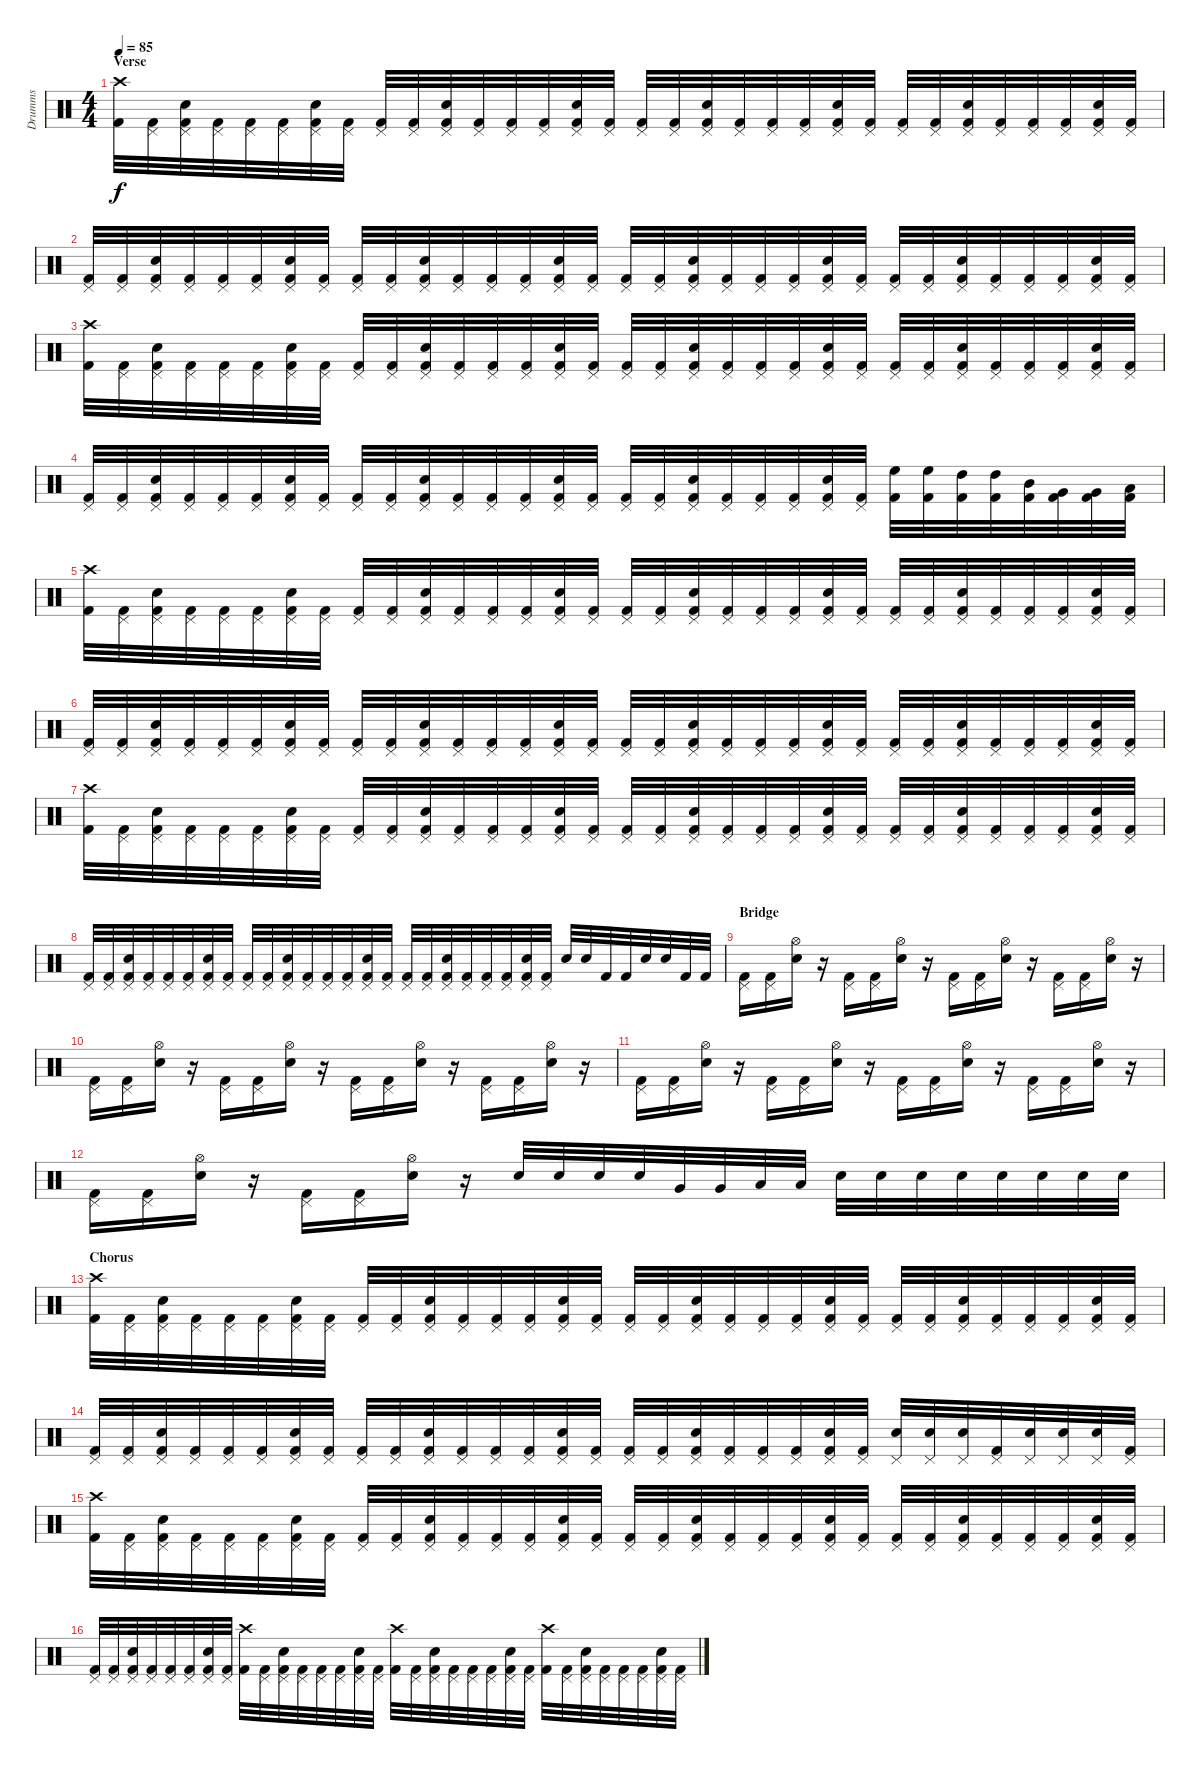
\track ("Drumms" "Drumms") {instrument percussion}
\staff {score}
\articulation defaults
\ts (4 4)
\section ("" "Verse")
\tempo 85
\clef neutral
\ks c
("Crash high (hit)" "Kick (hit) 2").32{dy f} ("Pedal Hi-Hat (hit)" "Kick (hit) 2").32 ("Pedal Hi-Hat (hit)" "Snare (hit) 2" "Kick (hit) 2").32 ("Pedal Hi-Hat (hit)" "Kick (hit) 2").32 ("Pedal Hi-Hat (hit)" "Kick (hit) 2").32 ("Pedal Hi-Hat (hit)" "Kick (hit) 2").32 ("Pedal Hi-Hat (hit)" "Snare (hit) 2" "Kick (hit) 2").32 ("Pedal Hi-Hat (hit)" "Kick (hit) 2").32 ("Pedal Hi-Hat (hit)" "Kick (hit) 2").32 ("Pedal Hi-Hat (hit)" "Kick (hit) 2").32 ("Pedal Hi-Hat (hit)" "Snare (hit) 2" "Kick (hit) 2").32 ("Pedal Hi-Hat (hit)" "Kick (hit) 2").32 ("Pedal Hi-Hat (hit)" "Kick (hit) 2").32 ("Pedal Hi-Hat (hit)" "Kick (hit) 2").32 ("Pedal Hi-Hat (hit)" "Snare (hit) 2" "Kick (hit) 2").32 ("Pedal Hi-Hat (hit)" "Kick (hit) 2").32 ("Pedal Hi-Hat (hit)" "Kick (hit) 2").32 ("Pedal Hi-Hat (hit)" "Kick (hit) 2").32 ("Pedal Hi-Hat (hit)" "Snare (hit) 2" "Kick (hit) 2").32 ("Pedal Hi-Hat (hit)" "Kick (hit) 2").32 ("Pedal Hi-Hat (hit)" "Kick (hit) 2").32 ("Pedal Hi-Hat (hit)" "Kick (hit) 2").32 ("Pedal Hi-Hat (hit)" "Snare (hit) 2" "Kick (hit) 2").32 ("Pedal Hi-Hat (hit)" "Kick (hit) 2").32 ("Pedal Hi-Hat (hit)" "Kick (hit) 2").32 ("Pedal Hi-Hat (hit)" "Kick (hit) 2").32 ("Pedal Hi-Hat (hit)" "Snare (hit) 2" "Kick (hit) 2").32 ("Pedal Hi-Hat (hit)" "Kick (hit) 2").32 ("Pedal Hi-Hat (hit)" "Kick (hit) 2").32 ("Pedal Hi-Hat (hit)" "Kick (hit) 2").32 ("Pedal Hi-Hat (hit)" "Snare (hit) 2" "Kick (hit) 2").32 ("Pedal Hi-Hat (hit)" "Kick (hit) 2").32 |
("Pedal Hi-Hat (hit)" "Kick (hit) 2").32 ("Pedal Hi-Hat (hit)" "Kick (hit) 2").32 ("Pedal Hi-Hat (hit)" "Snare (hit) 2" "Kick (hit) 2").32 ("Pedal Hi-Hat (hit)" "Kick (hit) 2").32 ("Pedal Hi-Hat (hit)" "Kick (hit) 2").32 ("Pedal Hi-Hat (hit)" "Kick (hit) 2").32 ("Pedal Hi-Hat (hit)" "Snare (hit) 2" "Kick (hit) 2").32 ("Pedal Hi-Hat (hit)" "Kick (hit) 2").32 ("Pedal Hi-Hat (hit)" "Kick (hit) 2").32 ("Pedal Hi-Hat (hit)" "Kick (hit) 2").32 ("Pedal Hi-Hat (hit)" "Snare (hit) 2" "Kick (hit) 2").32 ("Pedal Hi-Hat (hit)" "Kick (hit) 2").32 ("Pedal Hi-Hat (hit)" "Kick (hit) 2").32 ("Pedal Hi-Hat (hit)" "Kick (hit) 2").32 ("Pedal Hi-Hat (hit)" "Snare (hit) 2" "Kick (hit) 2").32 ("Pedal Hi-Hat (hit)" "Kick (hit) 2").32 ("Pedal Hi-Hat (hit)" "Kick (hit) 2").32 ("Pedal Hi-Hat (hit)" "Kick (hit) 2").32 ("Pedal Hi-Hat (hit)" "Snare (hit) 2" "Kick (hit) 2").32 ("Pedal Hi-Hat (hit)" "Kick (hit) 2").32 ("Pedal Hi-Hat (hit)" "Kick (hit) 2").32 ("Pedal Hi-Hat (hit)" "Kick (hit) 2").32 ("Pedal Hi-Hat (hit)" "Snare (hit) 2" "Kick (hit) 2").32 ("Pedal Hi-Hat (hit)" "Kick (hit) 2").32 ("Pedal Hi-Hat (hit)" "Kick (hit) 2").32 ("Pedal Hi-Hat (hit)" "Kick (hit) 2").32 ("Pedal Hi-Hat (hit)" "Snare (hit) 2" "Kick (hit) 2").32 ("Pedal Hi-Hat (hit)" "Kick (hit) 2").32 ("Pedal Hi-Hat (hit)" "Kick (hit) 2").32 ("Pedal Hi-Hat (hit)" "Kick (hit) 2").32 ("Pedal Hi-Hat (hit)" "Snare (hit) 2" "Kick (hit) 2").32 ("Pedal Hi-Hat (hit)" "Kick (hit) 2").32 |
("Crash high (hit)" "Kick (hit) 2").32 ("Pedal Hi-Hat (hit)" "Kick (hit) 2").32 ("Pedal Hi-Hat (hit)" "Snare (hit) 2" "Kick (hit) 2").32 ("Pedal Hi-Hat (hit)" "Kick (hit) 2").32 ("Pedal Hi-Hat (hit)" "Kick (hit) 2").32 ("Pedal Hi-Hat (hit)" "Kick (hit) 2").32 ("Pedal Hi-Hat (hit)" "Snare (hit) 2" "Kick (hit) 2").32 ("Pedal Hi-Hat (hit)" "Kick (hit) 2").32 ("Pedal Hi-Hat (hit)" "Kick (hit) 2").32 ("Pedal Hi-Hat (hit)" "Kick (hit) 2").32 ("Pedal Hi-Hat (hit)" "Snare (hit) 2" "Kick (hit) 2").32 ("Pedal Hi-Hat (hit)" "Kick (hit) 2").32 ("Pedal Hi-Hat (hit)" "Kick (hit) 2").32 ("Pedal Hi-Hat (hit)" "Kick (hit) 2").32 ("Pedal Hi-Hat (hit)" "Snare (hit) 2" "Kick (hit) 2").32 ("Pedal Hi-Hat (hit)" "Kick (hit) 2").32 ("Pedal Hi-Hat (hit)" "Kick (hit) 2").32 ("Pedal Hi-Hat (hit)" "Kick (hit) 2").32 ("Pedal Hi-Hat (hit)" "Snare (hit) 2" "Kick (hit) 2").32 ("Pedal Hi-Hat (hit)" "Kick (hit) 2").32 ("Pedal Hi-Hat (hit)" "Kick (hit) 2").32 ("Pedal Hi-Hat (hit)" "Kick (hit) 2").32 ("Pedal Hi-Hat (hit)" "Snare (hit) 2" "Kick (hit) 2").32 ("Pedal Hi-Hat (hit)" "Kick (hit) 2").32 ("Pedal Hi-Hat (hit)" "Kick (hit) 2").32 ("Pedal Hi-Hat (hit)" "Kick (hit) 2").32 ("Pedal Hi-Hat (hit)" "Snare (hit) 2" "Kick (hit) 2").32 ("Pedal Hi-Hat (hit)" "Kick (hit) 2").32 ("Pedal Hi-Hat (hit)" "Kick (hit) 2").32 ("Pedal Hi-Hat (hit)" "Kick (hit) 2").32 ("Pedal Hi-Hat (hit)" "Snare (hit) 2" "Kick (hit) 2").32 ("Pedal Hi-Hat (hit)" "Kick (hit) 2").32 |
("Pedal Hi-Hat (hit)" "Kick (hit) 2").32 ("Pedal Hi-Hat (hit)" "Kick (hit) 2").32 ("Pedal Hi-Hat (hit)" "Snare (hit) 2" "Kick (hit) 2").32 ("Pedal Hi-Hat (hit)" "Kick (hit) 2").32 ("Pedal Hi-Hat (hit)" "Kick (hit) 2").32 ("Pedal Hi-Hat (hit)" "Kick (hit) 2").32 ("Pedal Hi-Hat (hit)" "Snare (hit) 2" "Kick (hit) 2").32 ("Pedal Hi-Hat (hit)" "Kick (hit) 2").32 ("Pedal Hi-Hat (hit)" "Kick (hit) 2").32 ("Pedal Hi-Hat (hit)" "Kick (hit) 2").32 ("Pedal Hi-Hat (hit)" "Snare (hit) 2" "Kick (hit) 2").32 ("Pedal Hi-Hat (hit)" "Kick (hit) 2").32 ("Pedal Hi-Hat (hit)" "Kick (hit) 2").32 ("Pedal Hi-Hat (hit)" "Kick (hit) 2").32 ("Pedal Hi-Hat (hit)" "Snare (hit) 2" "Kick (hit) 2").32 ("Pedal Hi-Hat (hit)" "Kick (hit) 2").32 ("Pedal Hi-Hat (hit)" "Kick (hit) 2").32 ("Pedal Hi-Hat (hit)" "Kick (hit) 2").32 ("Pedal Hi-Hat (hit)" "Snare (hit) 2" "Kick (hit) 2").32 ("Pedal Hi-Hat (hit)" "Kick (hit) 2").32 ("Pedal Hi-Hat (hit)" "Kick (hit) 2").32 ("Pedal Hi-Hat (hit)" "Kick (hit) 2").32 ("Pedal Hi-Hat (hit)" "Snare (hit) 2" "Kick (hit) 2").32 ("Pedal Hi-Hat (hit)" "Kick (hit) 2").32 ("High Floor Tom (hit)" "Kick (hit) 2").32 ("High Floor Tom (hit)" "Kick (hit) 2").32 ("High Tom (hit)" "Kick (hit) 2").32 ("High Tom (hit)" "Kick (hit) 2").32 ("Mid Tom (hit)" "Kick (hit) 2").32 ("Very Low Tom (hit)" "Kick (hit) 2").32 ("Very Low Tom (hit)" "Kick (hit) 2").32 ("Low Floor Tom (hit)" "Kick (hit) 2").32 |
("Crash high (hit)" "Kick (hit) 2").32 ("Pedal Hi-Hat (hit)" "Kick (hit) 2").32 ("Pedal Hi-Hat (hit)" "Snare (hit) 2" "Kick (hit) 2").32 ("Pedal Hi-Hat (hit)" "Kick (hit) 2").32 ("Pedal Hi-Hat (hit)" "Kick (hit) 2").32 ("Pedal Hi-Hat (hit)" "Kick (hit) 2").32 ("Pedal Hi-Hat (hit)" "Snare (hit) 2" "Kick (hit) 2").32 ("Pedal Hi-Hat (hit)" "Kick (hit) 2").32 ("Pedal Hi-Hat (hit)" "Kick (hit) 2").32 ("Pedal Hi-Hat (hit)" "Kick (hit) 2").32 ("Pedal Hi-Hat (hit)" "Snare (hit) 2" "Kick (hit) 2").32 ("Pedal Hi-Hat (hit)" "Kick (hit) 2").32 ("Pedal Hi-Hat (hit)" "Kick (hit) 2").32 ("Pedal Hi-Hat (hit)" "Kick (hit) 2").32 ("Pedal Hi-Hat (hit)" "Snare (hit) 2" "Kick (hit) 2").32 ("Pedal Hi-Hat (hit)" "Kick (hit) 2").32 ("Pedal Hi-Hat (hit)" "Kick (hit) 2").32 ("Pedal Hi-Hat (hit)" "Kick (hit) 2").32 ("Pedal Hi-Hat (hit)" "Snare (hit) 2" "Kick (hit) 2").32 ("Pedal Hi-Hat (hit)" "Kick (hit) 2").32 ("Pedal Hi-Hat (hit)" "Kick (hit) 2").32 ("Pedal Hi-Hat (hit)" "Kick (hit) 2").32 ("Pedal Hi-Hat (hit)" "Snare (hit) 2" "Kick (hit) 2").32 ("Pedal Hi-Hat (hit)" "Kick (hit) 2").32 ("Pedal Hi-Hat (hit)" "Kick (hit) 2").32 ("Pedal Hi-Hat (hit)" "Kick (hit) 2").32 ("Pedal Hi-Hat (hit)" "Snare (hit) 2" "Kick (hit) 2").32 ("Pedal Hi-Hat (hit)" "Kick (hit) 2").32 ("Pedal Hi-Hat (hit)" "Kick (hit) 2").32 ("Pedal Hi-Hat (hit)" "Kick (hit) 2").32 ("Pedal Hi-Hat (hit)" "Snare (hit) 2" "Kick (hit) 2").32 ("Pedal Hi-Hat (hit)" "Kick (hit) 2").32 |
("Pedal Hi-Hat (hit)" "Kick (hit) 2").32 ("Pedal Hi-Hat (hit)" "Kick (hit) 2").32 ("Pedal Hi-Hat (hit)" "Snare (hit) 2" "Kick (hit) 2").32 ("Pedal Hi-Hat (hit)" "Kick (hit) 2").32 ("Pedal Hi-Hat (hit)" "Kick (hit) 2").32 ("Pedal Hi-Hat (hit)" "Kick (hit) 2").32 ("Pedal Hi-Hat (hit)" "Snare (hit) 2" "Kick (hit) 2").32 ("Pedal Hi-Hat (hit)" "Kick (hit) 2").32 ("Pedal Hi-Hat (hit)" "Kick (hit) 2").32 ("Pedal Hi-Hat (hit)" "Kick (hit) 2").32 ("Pedal Hi-Hat (hit)" "Snare (hit) 2" "Kick (hit) 2").32 ("Pedal Hi-Hat (hit)" "Kick (hit) 2").32 ("Pedal Hi-Hat (hit)" "Kick (hit) 2").32 ("Pedal Hi-Hat (hit)" "Kick (hit) 2").32 ("Pedal Hi-Hat (hit)" "Snare (hit) 2" "Kick (hit) 2").32 ("Pedal Hi-Hat (hit)" "Kick (hit) 2").32 ("Pedal Hi-Hat (hit)" "Kick (hit) 2").32 ("Pedal Hi-Hat (hit)" "Kick (hit) 2").32 ("Pedal Hi-Hat (hit)" "Snare (hit) 2" "Kick (hit) 2").32 ("Pedal Hi-Hat (hit)" "Kick (hit) 2").32 ("Pedal Hi-Hat (hit)" "Kick (hit) 2").32 ("Pedal Hi-Hat (hit)" "Kick (hit) 2").32 ("Pedal Hi-Hat (hit)" "Snare (hit) 2" "Kick (hit) 2").32 ("Pedal Hi-Hat (hit)" "Kick (hit) 2").32 ("Pedal Hi-Hat (hit)" "Kick (hit) 2").32 ("Pedal Hi-Hat (hit)" "Kick (hit) 2").32 ("Pedal Hi-Hat (hit)" "Snare (hit) 2" "Kick (hit) 2").32 ("Pedal Hi-Hat (hit)" "Kick (hit) 2").32 ("Pedal Hi-Hat (hit)" "Kick (hit) 2").32 ("Pedal Hi-Hat (hit)" "Kick (hit) 2").32 ("Pedal Hi-Hat (hit)" "Snare (hit) 2" "Kick (hit) 2").32 ("Pedal Hi-Hat (hit)" "Kick (hit) 2").32 |
("Crash high (hit)" "Kick (hit) 2").32 ("Pedal Hi-Hat (hit)" "Kick (hit) 2").32 ("Pedal Hi-Hat (hit)" "Snare (hit) 2" "Kick (hit) 2").32 ("Pedal Hi-Hat (hit)" "Kick (hit) 2").32 ("Pedal Hi-Hat (hit)" "Kick (hit) 2").32 ("Pedal Hi-Hat (hit)" "Kick (hit) 2").32 ("Pedal Hi-Hat (hit)" "Snare (hit) 2" "Kick (hit) 2").32 ("Pedal Hi-Hat (hit)" "Kick (hit) 2").32 ("Pedal Hi-Hat (hit)" "Kick (hit) 2").32 ("Pedal Hi-Hat (hit)" "Kick (hit) 2").32 ("Pedal Hi-Hat (hit)" "Snare (hit) 2" "Kick (hit) 2").32 ("Pedal Hi-Hat (hit)" "Kick (hit) 2").32 ("Pedal Hi-Hat (hit)" "Kick (hit) 2").32 ("Pedal Hi-Hat (hit)" "Kick (hit) 2").32 ("Pedal Hi-Hat (hit)" "Snare (hit) 2" "Kick (hit) 2").32 ("Pedal Hi-Hat (hit)" "Kick (hit) 2").32 ("Pedal Hi-Hat (hit)" "Kick (hit) 2").32 ("Pedal Hi-Hat (hit)" "Kick (hit) 2").32 ("Pedal Hi-Hat (hit)" "Snare (hit) 2" "Kick (hit) 2").32 ("Pedal Hi-Hat (hit)" "Kick (hit) 2").32 ("Pedal Hi-Hat (hit)" "Kick (hit) 2").32 ("Pedal Hi-Hat (hit)" "Kick (hit) 2").32 ("Pedal Hi-Hat (hit)" "Snare (hit) 2" "Kick (hit) 2").32 ("Pedal Hi-Hat (hit)" "Kick (hit) 2").32 ("Pedal Hi-Hat (hit)" "Kick (hit) 2").32 ("Pedal Hi-Hat (hit)" "Kick (hit) 2").32 ("Pedal Hi-Hat (hit)" "Snare (hit) 2" "Kick (hit) 2").32 ("Pedal Hi-Hat (hit)" "Kick (hit) 2").32 ("Pedal Hi-Hat (hit)" "Kick (hit) 2").32 ("Pedal Hi-Hat (hit)" "Kick (hit) 2").32 ("Pedal Hi-Hat (hit)" "Snare (hit) 2" "Kick (hit) 2").32 ("Pedal Hi-Hat (hit)" "Kick (hit) 2").32 |
("Pedal Hi-Hat (hit)" "Kick (hit) 2").32 ("Pedal Hi-Hat (hit)" "Kick (hit) 2").32 ("Pedal Hi-Hat (hit)" "Snare (hit) 2" "Kick (hit) 2").32 ("Pedal Hi-Hat (hit)" "Kick (hit) 2").32 ("Pedal Hi-Hat (hit)" "Kick (hit) 2").32 ("Pedal Hi-Hat (hit)" "Kick (hit) 2").32 ("Pedal Hi-Hat (hit)" "Snare (hit) 2" "Kick (hit) 2").32 ("Pedal Hi-Hat (hit)" "Kick (hit) 2").32 ("Pedal Hi-Hat (hit)" "Kick (hit) 2").32 ("Pedal Hi-Hat (hit)" "Kick (hit) 2").32 ("Pedal Hi-Hat (hit)" "Snare (hit) 2" "Kick (hit) 2").32 ("Pedal Hi-Hat (hit)" "Kick (hit) 2").32 ("Pedal Hi-Hat (hit)" "Kick (hit) 2").32 ("Pedal Hi-Hat (hit)" "Kick (hit) 2").32 ("Pedal Hi-Hat (hit)" "Snare (hit) 2" "Kick (hit) 2").32 ("Pedal Hi-Hat (hit)" "Kick (hit) 2").32 ("Pedal Hi-Hat (hit)" "Kick (hit) 2").32 ("Pedal Hi-Hat (hit)" "Kick (hit) 2").32 ("Pedal Hi-Hat (hit)" "Snare (hit) 2" "Kick (hit) 2").32 ("Pedal Hi-Hat (hit)" "Kick (hit) 2").32 ("Pedal Hi-Hat (hit)" "Kick (hit) 2").32 ("Pedal Hi-Hat (hit)" "Kick (hit) 2").32 ("Pedal Hi-Hat (hit)" "Snare (hit) 2" "Kick (hit) 2").32 ("Pedal Hi-Hat (hit)" "Kick (hit) 2").32 "Snare (hit) 2".32 "Snare (hit) 2".32 "Kick (hit) 2".32 "Kick (hit) 2".32 "Snare (hit) 2".32 "Snare (hit) 2".32 "Kick (hit) 2".32 "Kick (hit) 2".32 |
\section ("" "Bridge")
("Pedal Hi-Hat (hit)" "Kick (hit) 2").16 ("Pedal Hi-Hat (hit)" "Kick (hit) 2").16 ("Hi-Hat (open)" "Snare (hit) 2").16 r.16 ("Pedal Hi-Hat (hit)" "Kick (hit) 2").16 ("Pedal Hi-Hat (hit)" "Kick (hit) 2").16 ("Hi-Hat (open)" "Snare (hit) 2").16 r.16 ("Pedal Hi-Hat (hit)" "Kick (hit) 2").16 ("Pedal Hi-Hat (hit)" "Kick (hit) 2").16 ("Hi-Hat (open)" "Snare (hit) 2").16 r.16 ("Pedal Hi-Hat (hit)" "Kick (hit) 2").16 ("Pedal Hi-Hat (hit)" "Kick (hit) 2").16 ("Hi-Hat (open)" "Snare (hit) 2").16 r.16 |
("Pedal Hi-Hat (hit)" "Kick (hit) 2").16 ("Pedal Hi-Hat (hit)" "Kick (hit) 2").16 ("Hi-Hat (open)" "Snare (hit) 2").16 r.16 ("Pedal Hi-Hat (hit)" "Kick (hit) 2").16 ("Pedal Hi-Hat (hit)" "Kick (hit) 2").16 ("Hi-Hat (open)" "Snare (hit) 2").16 r.16 ("Pedal Hi-Hat (hit)" "Kick (hit) 2").16 ("Pedal Hi-Hat (hit)" "Kick (hit) 2").16 ("Hi-Hat (open)" "Snare (hit) 2").16 r.16 ("Pedal Hi-Hat (hit)" "Kick (hit) 2").16 ("Pedal Hi-Hat (hit)" "Kick (hit) 2").16 ("Hi-Hat (open)" "Snare (hit) 2").16 r.16 |
("Pedal Hi-Hat (hit)" "Kick (hit) 2").16 ("Pedal Hi-Hat (hit)" "Kick (hit) 2").16 ("Hi-Hat (open)" "Snare (hit) 2").16 r.16 ("Pedal Hi-Hat (hit)" "Kick (hit) 2").16 ("Pedal Hi-Hat (hit)" "Kick (hit) 2").16 ("Hi-Hat (open)" "Snare (hit) 2").16 r.16 ("Pedal Hi-Hat (hit)" "Kick (hit) 2").16 ("Pedal Hi-Hat (hit)" "Kick (hit) 2").16 ("Hi-Hat (open)" "Snare (hit) 2").16 r.16 ("Pedal Hi-Hat (hit)" "Kick (hit) 2").16 ("Pedal Hi-Hat (hit)" "Kick (hit) 2").16 ("Hi-Hat (open)" "Snare (hit) 2").16 r.16 |
("Pedal Hi-Hat (hit)" "Kick (hit) 2").16 ("Pedal Hi-Hat (hit)" "Kick (hit) 2").16 ("Hi-Hat (open)" "Snare (hit) 2").16 r.16 ("Pedal Hi-Hat (hit)" "Kick (hit) 2").16 ("Pedal Hi-Hat (hit)" "Kick (hit) 2").16 ("Hi-Hat (open)" "Snare (hit) 2").16 r.16 "Snare (hit) 2".32 "Snare (hit) 2".32 "Snare (hit) 2".32 "Snare (hit) 2".32 "Very Low Tom (hit)".32 "Very Low Tom (hit)".32 "Low Floor Tom (hit)".32 "Low Floor Tom (hit)".32 "Snare (hit) 2".32 "Snare (hit) 2".32 "Snare (hit) 2".32 "Snare (hit) 2".32 "Snare (hit) 2".32 "Snare (hit) 2".32 "Snare (hit) 2".32 "Snare (hit) 2".32 |
\section ("" "Chorus")
("Crash high (hit)" "Kick (hit) 2").32 ("Pedal Hi-Hat (hit)" "Kick (hit) 2").32 ("Pedal Hi-Hat (hit)" "Snare (hit) 2" "Kick (hit) 2").32 ("Pedal Hi-Hat (hit)" "Kick (hit) 2").32 ("Pedal Hi-Hat (hit)" "Kick (hit) 2").32 ("Pedal Hi-Hat (hit)" "Kick (hit) 2").32 ("Pedal Hi-Hat (hit)" "Snare (hit) 2" "Kick (hit) 2").32 ("Pedal Hi-Hat (hit)" "Kick (hit) 2").32 ("Pedal Hi-Hat (hit)" "Kick (hit) 2").32 ("Pedal Hi-Hat (hit)" "Kick (hit) 2").32 ("Pedal Hi-Hat (hit)" "Snare (hit) 2" "Kick (hit) 2").32 ("Pedal Hi-Hat (hit)" "Kick (hit) 2").32 ("Pedal Hi-Hat (hit)" "Kick (hit) 2").32 ("Pedal Hi-Hat (hit)" "Kick (hit) 2").32 ("Pedal Hi-Hat (hit)" "Snare (hit) 2" "Kick (hit) 2").32 ("Pedal Hi-Hat (hit)" "Kick (hit) 2").32 ("Pedal Hi-Hat (hit)" "Kick (hit) 2").32 ("Pedal Hi-Hat (hit)" "Kick (hit) 2").32 ("Pedal Hi-Hat (hit)" "Snare (hit) 2" "Kick (hit) 2").32 ("Pedal Hi-Hat (hit)" "Kick (hit) 2").32 ("Pedal Hi-Hat (hit)" "Kick (hit) 2").32 ("Pedal Hi-Hat (hit)" "Kick (hit) 2").32 ("Pedal Hi-Hat (hit)" "Snare (hit) 2" "Kick (hit) 2").32 ("Pedal Hi-Hat (hit)" "Kick (hit) 2").32 ("Pedal Hi-Hat (hit)" "Kick (hit) 2").32 ("Pedal Hi-Hat (hit)" "Kick (hit) 2").32 ("Pedal Hi-Hat (hit)" "Snare (hit) 2" "Kick (hit) 2").32 ("Pedal Hi-Hat (hit)" "Kick (hit) 2").32 ("Pedal Hi-Hat (hit)" "Kick (hit) 2").32 ("Pedal Hi-Hat (hit)" "Kick (hit) 2").32 ("Pedal Hi-Hat (hit)" "Snare (hit) 2" "Kick (hit) 2").32 ("Pedal Hi-Hat (hit)" "Kick (hit) 2").32 |
("Pedal Hi-Hat (hit)" "Kick (hit) 2").32 ("Pedal Hi-Hat (hit)" "Kick (hit) 2").32 ("Pedal Hi-Hat (hit)" "Snare (hit) 2" "Kick (hit) 2").32 ("Pedal Hi-Hat (hit)" "Kick (hit) 2").32 ("Pedal Hi-Hat (hit)" "Kick (hit) 2").32 ("Pedal Hi-Hat (hit)" "Kick (hit) 2").32 ("Pedal Hi-Hat (hit)" "Snare (hit) 2" "Kick (hit) 2").32 ("Pedal Hi-Hat (hit)" "Kick (hit) 2").32 ("Pedal Hi-Hat (hit)" "Kick (hit) 2").32 ("Pedal Hi-Hat (hit)" "Kick (hit) 2").32 ("Pedal Hi-Hat (hit)" "Snare (hit) 2" "Kick (hit) 2").32 ("Pedal Hi-Hat (hit)" "Kick (hit) 2").32 ("Pedal Hi-Hat (hit)" "Kick (hit) 2").32 ("Pedal Hi-Hat (hit)" "Kick (hit) 2").32 ("Pedal Hi-Hat (hit)" "Snare (hit) 2" "Kick (hit) 2").32 ("Pedal Hi-Hat (hit)" "Kick (hit) 2").32 ("Pedal Hi-Hat (hit)" "Kick (hit) 2").32 ("Pedal Hi-Hat (hit)" "Kick (hit) 2").32 ("Pedal Hi-Hat (hit)" "Snare (hit) 2" "Kick (hit) 2").32 ("Pedal Hi-Hat (hit)" "Kick (hit) 2").32 ("Pedal Hi-Hat (hit)" "Kick (hit) 2").32 ("Pedal Hi-Hat (hit)" "Kick (hit) 2").32 ("Pedal Hi-Hat (hit)" "Snare (hit) 2" "Kick (hit) 2").32 ("Pedal Hi-Hat (hit)" "Kick (hit) 2").32 ("Pedal Hi-Hat (hit)" "Snare (hit) 2").32 ("Pedal Hi-Hat (hit)" "Snare (hit) 2").32 ("Pedal Hi-Hat (hit)" "Snare (hit) 2").32 ("Pedal Hi-Hat (hit)" "Kick (hit) 2").32 ("Pedal Hi-Hat (hit)" "Snare (hit) 2").32 ("Pedal Hi-Hat (hit)" "Snare (hit) 2").32 ("Pedal Hi-Hat (hit)" "Snare (hit) 2").32 ("Pedal Hi-Hat (hit)" "Kick (hit) 2").32 |
("Crash high (hit)" "Kick (hit) 2").32 ("Pedal Hi-Hat (hit)" "Kick (hit) 2").32 ("Pedal Hi-Hat (hit)" "Snare (hit) 2" "Kick (hit) 2").32 ("Pedal Hi-Hat (hit)" "Kick (hit) 2").32 ("Pedal Hi-Hat (hit)" "Kick (hit) 2").32 ("Pedal Hi-Hat (hit)" "Kick (hit) 2").32 ("Pedal Hi-Hat (hit)" "Snare (hit) 2" "Kick (hit) 2").32 ("Pedal Hi-Hat (hit)" "Kick (hit) 2").32 ("Pedal Hi-Hat (hit)" "Kick (hit) 2").32 ("Pedal Hi-Hat (hit)" "Kick (hit) 2").32 ("Pedal Hi-Hat (hit)" "Snare (hit) 2" "Kick (hit) 2").32 ("Pedal Hi-Hat (hit)" "Kick (hit) 2").32 ("Pedal Hi-Hat (hit)" "Kick (hit) 2").32 ("Pedal Hi-Hat (hit)" "Kick (hit) 2").32 ("Pedal Hi-Hat (hit)" "Snare (hit) 2" "Kick (hit) 2").32 ("Pedal Hi-Hat (hit)" "Kick (hit) 2").32 ("Pedal Hi-Hat (hit)" "Kick (hit) 2").32 ("Pedal Hi-Hat (hit)" "Kick (hit) 2").32 ("Pedal Hi-Hat (hit)" "Snare (hit) 2" "Kick (hit) 2").32 ("Pedal Hi-Hat (hit)" "Kick (hit) 2").32 ("Pedal Hi-Hat (hit)" "Kick (hit) 2").32 ("Pedal Hi-Hat (hit)" "Kick (hit) 2").32 ("Pedal Hi-Hat (hit)" "Snare (hit) 2" "Kick (hit) 2").32 ("Pedal Hi-Hat (hit)" "Kick (hit) 2").32 ("Pedal Hi-Hat (hit)" "Kick (hit) 2").32 ("Pedal Hi-Hat (hit)" "Kick (hit) 2").32 ("Pedal Hi-Hat (hit)" "Snare (hit) 2" "Kick (hit) 2").32 ("Pedal Hi-Hat (hit)" "Kick (hit) 2").32 ("Pedal Hi-Hat (hit)" "Kick (hit) 2").32 ("Pedal Hi-Hat (hit)" "Kick (hit) 2").32 ("Pedal Hi-Hat (hit)" "Snare (hit) 2" "Kick (hit) 2").32 ("Pedal Hi-Hat (hit)" "Kick (hit) 2").32 |
("Pedal Hi-Hat (hit)" "Kick (hit) 2").32 ("Pedal Hi-Hat (hit)" "Kick (hit) 2").32 ("Pedal Hi-Hat (hit)" "Snare (hit) 2" "Kick (hit) 2").32 ("Pedal Hi-Hat (hit)" "Kick (hit) 2").32 ("Pedal Hi-Hat (hit)" "Kick (hit) 2").32 ("Pedal Hi-Hat (hit)" "Kick (hit) 2").32 ("Pedal Hi-Hat (hit)" "Snare (hit) 2" "Kick (hit) 2").32 ("Pedal Hi-Hat (hit)" "Kick (hit) 2").32 ("Crash high (hit)" "Kick (hit) 2").32 ("Pedal Hi-Hat (hit)" "Kick (hit) 2").32 ("Pedal Hi-Hat (hit)" "Snare (hit) 2" "Kick (hit) 2").32 ("Pedal Hi-Hat (hit)" "Kick (hit) 2").32 ("Pedal Hi-Hat (hit)" "Kick (hit) 2").32 ("Pedal Hi-Hat (hit)" "Kick (hit) 2").32 ("Pedal Hi-Hat (hit)" "Snare (hit) 2" "Kick (hit) 2").32 ("Pedal Hi-Hat (hit)" "Kick (hit) 2").32 ("Crash high (hit)" "Kick (hit) 2").32 ("Pedal Hi-Hat (hit)" "Kick (hit) 2").32 ("Pedal Hi-Hat (hit)" "Snare (hit) 2" "Kick (hit) 2").32 ("Pedal Hi-Hat (hit)" "Kick (hit) 2").32 ("Pedal Hi-Hat (hit)" "Kick (hit) 2").32 ("Pedal Hi-Hat (hit)" "Kick (hit) 2").32 ("Pedal Hi-Hat (hit)" "Snare (hit) 2" "Kick (hit) 2").32 ("Pedal Hi-Hat (hit)" "Kick (hit) 2").32 ("Crash high (hit)" "Kick (hit) 2").32 ("Pedal Hi-Hat (hit)" "Kick (hit) 2").32 ("Pedal Hi-Hat (hit)" "Snare (hit) 2" "Kick (hit) 2").32 ("Pedal Hi-Hat (hit)" "Kick (hit) 2").32 ("Pedal Hi-Hat (hit)" "Kick (hit) 2").32 ("Pedal Hi-Hat (hit)" "Kick (hit) 2").32 ("Pedal Hi-Hat (hit)" "Snare (hit) 2" "Kick (hit) 2").32 ("Pedal Hi-Hat (hit)" "Kick (hit) 2").32
